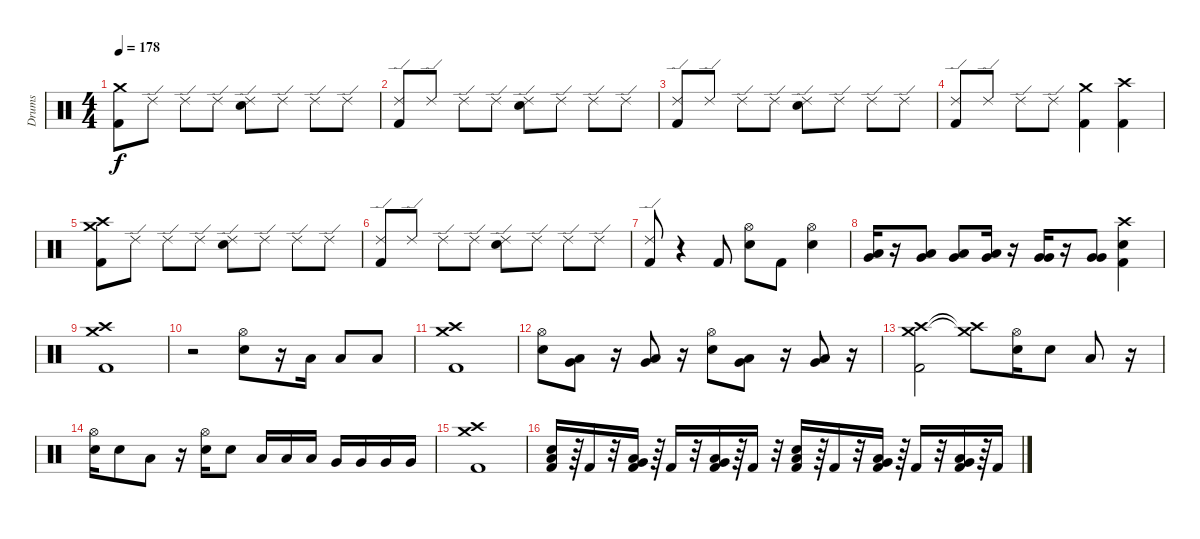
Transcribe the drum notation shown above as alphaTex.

\track ("Drums" "Drums") {instrument percussion}
\staff {score}
\articulation defaults
\ts (4 4)
\tempo 178
\clef neutral
\ks c
("Crash medium (hit)" "Kick (hit) 2").8{dy f} "Ride (edge) 2".8 "Ride (edge) 2".8 "Ride (edge) 2".8 ("Ride (edge) 2" "Electric Snare (hit)").8 "Ride (edge) 2".8 "Ride (edge) 2".8 "Ride (edge) 2".8 |
("Ride (edge) 2" "Kick (hit) 2").8 "Ride (edge) 2".8 "Ride (edge) 2".8 "Ride (edge) 2".8 ("Ride (edge) 2" "Electric Snare (hit)").8 "Ride (edge) 2".8 "Ride (edge) 2".8 "Ride (edge) 2".8 |
("Ride (edge) 2" "Kick (hit) 2").8 "Ride (edge) 2".8 "Ride (edge) 2".8 "Ride (edge) 2".8 ("Ride (edge) 2" "Electric Snare (hit)").8 "Ride (edge) 2".8 "Ride (edge) 2".8 "Ride (edge) 2".8 |
("Ride (edge) 2" "Kick (hit) 2").8 "Ride (edge) 2".8 "Ride (edge) 2".8 "Ride (edge) 2".8 ("Crash medium (hit)" "Kick (hit) 2").4 ("Crash high (hit)" "Kick (hit) 2").4 |
("Crash medium (hit)" "Crash high (hit)" "Kick (hit) 2").8 "Ride (edge) 2".8 "Ride (edge) 2".8 "Ride (edge) 2".8 ("Ride (edge) 2" "Electric Snare (hit)").8 "Ride (edge) 2".8 "Ride (edge) 2".8 "Ride (edge) 2".8 |
("Ride (edge) 2" "Kick (hit) 2").8 "Ride (edge) 2".8 "Ride (edge) 2".8 "Ride (edge) 2".8 ("Ride (edge) 2" "Electric Snare (hit)").8 "Ride (edge) 2".8 "Ride (edge) 2".8 "Ride (edge) 2".8 |
("Ride (edge) 2" "Kick (hit) 2").8 r.4 "Kick (hit) 2".8 ("Hi-Hat (open)" "Electric Snare (hit)").8 "Kick (hit) 2".8 ("Hi-Hat (open)" "Electric Snare (hit)").4 |
("Very Low Tom (hit)" "Low Tom (hit)").16 r.16 ("Very Low Tom (hit)" "Low Tom (hit)").8 ("Low Floor Tom (hit)" "Very Low Tom (hit)").8 ("Low Floor Tom (hit)" "Very Low Tom (hit)").16 r.16 ("Very Low Tom (hit)" "Very Low Tom (hit)").16 r.16 ("Very Low Tom (hit)" "Very Low Tom (hit)").8 ("Crash high (hit)" "Electric Snare (hit)" "Kick (hit) 2").4 |
("Crash medium (hit)" "Crash high (hit)" "Kick (hit) 2").1 |
r.2 ("Hi-Hat (open)" "Electric Snare (hit)").8 r.16 "Low Tom (hit)".16 "Low Tom (hit)".8 "Low Tom (hit)".8 |
("Crash medium (hit)" "Crash high (hit)" "Kick (hit) 2").1 |
("Hi-Hat (open)" "Electric Snare (hit)").8 ("Low Tom (hit)" "Very Low Tom (hit)").8 r.16 ("Low Tom (hit)" "Very Low Tom (hit)").8 r.16 ("Hi-Hat (open)" "Electric Snare (hit)").8 ("Very Low Tom (hit)" "Low Floor Tom (hit)").8 r.16 ("Very Low Tom (hit)" "Low Floor Tom (hit)").8 r.16 |
("Crash medium (hit)" "Crash high (hit)" "Kick (hit) 2").2 ("Crash medium (hit)"{t} "Crash high (hit)"{t}).8 ("Hi-Hat (open)" "Electric Snare (hit)").16 "Electric Snare (hit)".8 "Low Tom (hit)".8 r.16 |
("Hi-Hat (open)" "Electric Snare (hit)").16 "Electric Snare (hit)".8 "Low Tom (hit)".8 r.16 ("Hi-Hat (open)" "Electric Snare (hit)").16 "Electric Snare (hit)".8 "Low Tom (hit)".16 "Low Tom (hit)".16 "Low Tom (hit)".16 "Very Low Tom (hit)".16 "Very Low Tom (hit)".16 "Very Low Tom (hit)".16 "Very Low Tom (hit)".16 |
("Crash medium (hit)" "Crash high (hit)" "Kick (hit) 2").1 |
("Low Tom (hit)" "Electric Snare (hit)" "Kick (hit) 2").16 r.64 "Kick (hit) 2".16 r.32 ("Very Low Tom (hit)" "Low Tom (hit)" "Kick (hit) 2").16 r.64 "Kick (hit) 2".16 r.32 ("Low Floor Tom (hit)" "Very Low Tom (hit)" "Kick (hit) 2").16 r.64 "Kick (hit) 2".16 r.32 ("Low Tom (hit)" "Electric Snare (hit)" "Kick (hit) 2").16 r.64 "Kick (hit) 2".16 r.32 ("Very Low Tom (hit)" "Low Tom (hit)" "Kick (hit) 2").16 r.64 "Kick (hit) 2".16 r.32 ("Low Floor Tom (hit)" "Very Low Tom (hit)" "Kick (hit) 2").16 r.64 "Kick (hit) 2".16
